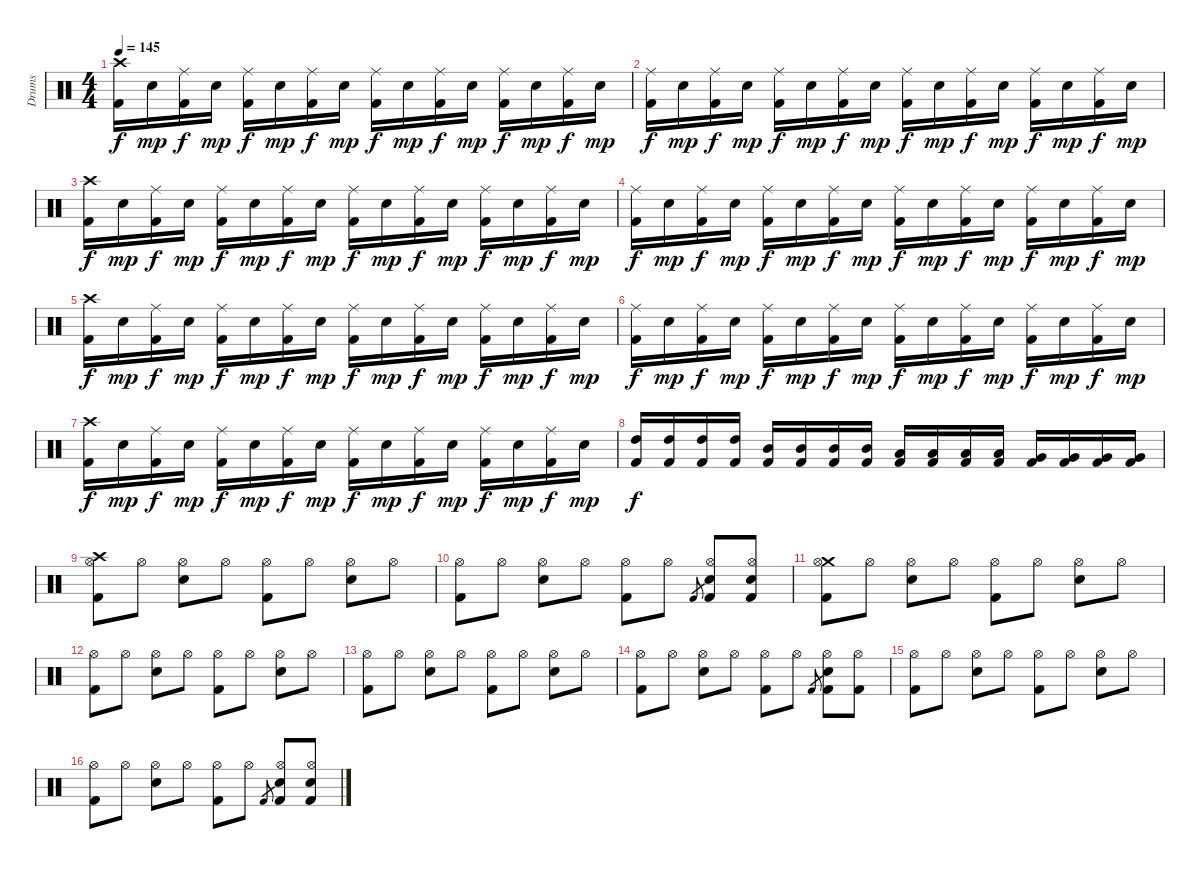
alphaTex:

\track ("Drums" "Drums") {instrument percussion}
\staff {score}
\articulation defaults
\ts (4 4)
\tempo 145
\clef neutral
\ks c
("Crash high (hit)" "Kick (hit) 2").16{dy f} "Electric Snare (hit)".16{dy mp} ("Ride (middle)" "Kick (hit) 2").16{dy f} "Electric Snare (hit)".16{dy mp} ("Ride (middle)" "Kick (hit) 2").16{dy f} "Electric Snare (hit)".16{dy mp} ("Ride (middle)" "Kick (hit) 2").16{dy f} "Electric Snare (hit)".16{dy mp} ("Ride (middle)" "Kick (hit) 2").16{dy f} "Electric Snare (hit)".16{dy mp} ("Ride (middle)" "Kick (hit) 2").16{dy f} "Electric Snare (hit)".16{dy mp} ("Ride (middle)" "Kick (hit) 2").16{dy f} "Electric Snare (hit)".16{dy mp} ("Ride (middle)" "Kick (hit) 2").16{dy f} "Electric Snare (hit)".16{dy mp} |
("Ride (middle)" "Kick (hit) 2").16{dy f} "Electric Snare (hit)".16{dy mp} ("Ride (middle)" "Kick (hit) 2").16{dy f} "Electric Snare (hit)".16{dy mp} ("Ride (middle)" "Kick (hit) 2").16{dy f} "Electric Snare (hit)".16{dy mp} ("Ride (middle)" "Kick (hit) 2").16{dy f} "Electric Snare (hit)".16{dy mp} ("Ride (middle)" "Kick (hit) 2").16{dy f} "Electric Snare (hit)".16{dy mp} ("Ride (middle)" "Kick (hit) 2").16{dy f} "Electric Snare (hit)".16{dy mp} ("Ride (middle)" "Kick (hit) 2").16{dy f} "Electric Snare (hit)".16{dy mp} ("Ride (middle)" "Kick (hit) 2").16{dy f} "Electric Snare (hit)".16{dy mp} |
("Crash high (hit)" "Kick (hit) 2").16{dy f} "Electric Snare (hit)".16{dy mp} ("Ride (middle)" "Kick (hit) 2").16{dy f} "Electric Snare (hit)".16{dy mp} ("Ride (middle)" "Kick (hit) 2").16{dy f} "Electric Snare (hit)".16{dy mp} ("Ride (middle)" "Kick (hit) 2").16{dy f} "Electric Snare (hit)".16{dy mp} ("Ride (middle)" "Kick (hit) 2").16{dy f} "Electric Snare (hit)".16{dy mp} ("Ride (middle)" "Kick (hit) 2").16{dy f} "Electric Snare (hit)".16{dy mp} ("Ride (middle)" "Kick (hit) 2").16{dy f} "Electric Snare (hit)".16{dy mp} ("Ride (middle)" "Kick (hit) 2").16{dy f} "Electric Snare (hit)".16{dy mp} |
("Ride (middle)" "Kick (hit) 2").16{dy f} "Electric Snare (hit)".16{dy mp} ("Ride (middle)" "Kick (hit) 2").16{dy f} "Electric Snare (hit)".16{dy mp} ("Ride (middle)" "Kick (hit) 2").16{dy f} "Electric Snare (hit)".16{dy mp} ("Ride (middle)" "Kick (hit) 2").16{dy f} "Electric Snare (hit)".16{dy mp} ("Ride (middle)" "Kick (hit) 2").16{dy f} "Electric Snare (hit)".16{dy mp} ("Ride (middle)" "Kick (hit) 2").16{dy f} "Electric Snare (hit)".16{dy mp} ("Ride (middle)" "Kick (hit) 2").16{dy f} "Electric Snare (hit)".16{dy mp} ("Ride (middle)" "Kick (hit) 2").16{dy f} "Electric Snare (hit)".16{dy mp} |
("Crash high (hit)" "Kick (hit) 2").16{dy f} "Electric Snare (hit)".16{dy mp} ("Ride (middle)" "Kick (hit) 2").16{dy f} "Electric Snare (hit)".16{dy mp} ("Ride (middle)" "Kick (hit) 2").16{dy f} "Electric Snare (hit)".16{dy mp} ("Ride (middle)" "Kick (hit) 2").16{dy f} "Electric Snare (hit)".16{dy mp} ("Ride (middle)" "Kick (hit) 2").16{dy f} "Electric Snare (hit)".16{dy mp} ("Ride (middle)" "Kick (hit) 2").16{dy f} "Electric Snare (hit)".16{dy mp} ("Ride (middle)" "Kick (hit) 2").16{dy f} "Electric Snare (hit)".16{dy mp} ("Ride (middle)" "Kick (hit) 2").16{dy f} "Electric Snare (hit)".16{dy mp} |
("Ride (middle)" "Kick (hit) 2").16{dy f} "Electric Snare (hit)".16{dy mp} ("Ride (middle)" "Kick (hit) 2").16{dy f} "Electric Snare (hit)".16{dy mp} ("Ride (middle)" "Kick (hit) 2").16{dy f} "Electric Snare (hit)".16{dy mp} ("Ride (middle)" "Kick (hit) 2").16{dy f} "Electric Snare (hit)".16{dy mp} ("Ride (middle)" "Kick (hit) 2").16{dy f} "Electric Snare (hit)".16{dy mp} ("Ride (middle)" "Kick (hit) 2").16{dy f} "Electric Snare (hit)".16{dy mp} ("Ride (middle)" "Kick (hit) 2").16{dy f} "Electric Snare (hit)".16{dy mp} ("Ride (middle)" "Kick (hit) 2").16{dy f} "Electric Snare (hit)".16{dy mp} |
("Crash high (hit)" "Kick (hit) 2").16{dy f} "Electric Snare (hit)".16{dy mp} ("Ride (middle)" "Kick (hit) 2").16{dy f} "Electric Snare (hit)".16{dy mp} ("Ride (middle)" "Kick (hit) 2").16{dy f} "Electric Snare (hit)".16{dy mp} ("Ride (middle)" "Kick (hit) 2").16{dy f} "Electric Snare (hit)".16{dy mp} ("Ride (middle)" "Kick (hit) 2").16{dy f} "Electric Snare (hit)".16{dy mp} ("Ride (middle)" "Kick (hit) 2").16{dy f} "Electric Snare (hit)".16{dy mp} ("Ride (middle)" "Kick (hit) 2").16{dy f} "Electric Snare (hit)".16{dy mp} ("Ride (middle)" "Kick (hit) 2").16{dy f} "Electric Snare (hit)".16{dy mp} |
("High Tom (hit)" "Kick (hit) 2").16{dy f} ("High Tom (hit)" "Kick (hit) 2").16 ("High Tom (hit)" "Kick (hit) 2").16 ("High Tom (hit)" "Kick (hit) 2").16 ("Mid Tom (hit)" "Kick (hit) 2").16 ("Mid Tom (hit)" "Kick (hit) 2").16 ("Mid Tom (hit)" "Kick (hit) 2").16 ("Mid Tom (hit)" "Kick (hit) 2").16 ("Low Tom (hit)" "Kick (hit) 2").16 ("Low Tom (hit)" "Kick (hit) 2").16 ("Low Tom (hit)" "Kick (hit) 2").16 ("Low Tom (hit)" "Kick (hit) 2").16 ("Very Low Tom (hit)" "Kick (hit) 2").16 ("Very Low Tom (hit)" "Kick (hit) 2").16 ("Very Low Tom (hit)" "Kick (hit) 2").16 ("Very Low Tom (hit)" "Kick (hit) 2").16 |
("Crash high (hit)" "Hi-Hat (open)" "Kick (hit) 2").8 "Hi-Hat (open)".8 ("Hi-Hat (open)" "Snare (hit) 2").8 "Hi-Hat (open)".8 ("Hi-Hat (open)" "Kick (hit) 2").8 "Hi-Hat (open)".8 ("Hi-Hat (open)" "Snare (hit) 2").8 "Hi-Hat (open)".8 |
("Hi-Hat (open)" "Kick (hit) 2").8 "Hi-Hat (open)".8 ("Hi-Hat (open)" "Snare (hit) 2").8 "Hi-Hat (open)".8 ("Hi-Hat (open)" "Kick (hit) 2").8 "Hi-Hat (open)".8 "Kick (hit) 2".8{gr} ("Hi-Hat (open)" "Snare (hit) 2" "Kick (hit) 2").8 ("Hi-Hat (open)" "Snare (hit) 2" "Kick (hit) 2").8 |
("Crash medium (hit)" "Hi-Hat (open)" "Kick (hit) 2").8 "Hi-Hat (open)".8 ("Hi-Hat (open)" "Snare (hit) 2").8 "Hi-Hat (open)".8 ("Hi-Hat (open)" "Kick (hit) 2").8 "Hi-Hat (open)".8 ("Hi-Hat (open)" "Snare (hit) 2").8 "Hi-Hat (open)".8 |
("Hi-Hat (open)" "Kick (hit) 2").8 "Hi-Hat (open)".8 ("Hi-Hat (open)" "Snare (hit) 2").8 "Hi-Hat (open)".8 ("Hi-Hat (open)" "Kick (hit) 2").8 "Hi-Hat (open)".8 ("Hi-Hat (open)" "Snare (hit) 2").8 "Hi-Hat (open)".8 |
("Hi-Hat (open)" "Kick (hit) 2").8 "Hi-Hat (open)".8 ("Hi-Hat (open)" "Snare (hit) 2").8 "Hi-Hat (open)".8 ("Hi-Hat (open)" "Kick (hit) 2").8 "Hi-Hat (open)".8 ("Hi-Hat (open)" "Snare (hit) 2").8 "Hi-Hat (open)".8 |
("Hi-Hat (open)" "Kick (hit) 2").8 "Hi-Hat (open)".8 ("Hi-Hat (open)" "Snare (hit) 2").8 "Hi-Hat (open)".8 ("Hi-Hat (open)" "Kick (hit) 2").8 "Hi-Hat (open)".8 "Kick (hit) 2".8{gr} ("Hi-Hat (open)" "Snare (hit) 2" "Kick (hit) 2").8 ("Hi-Hat (open)" "Kick (hit) 2").8 |
("Hi-Hat (open)" "Kick (hit) 2").8 "Hi-Hat (open)".8 ("Hi-Hat (open)" "Snare (hit) 2").8 "Hi-Hat (open)".8 ("Hi-Hat (open)" "Kick (hit) 2").8 "Hi-Hat (open)".8 ("Hi-Hat (open)" "Snare (hit) 2").8 "Hi-Hat (open)".8 |
("Hi-Hat (open)" "Kick (hit) 2").8 "Hi-Hat (open)".8 ("Hi-Hat (open)" "Snare (hit) 2").8 "Hi-Hat (open)".8 ("Hi-Hat (open)" "Kick (hit) 2").8 "Hi-Hat (open)".8 "Kick (hit) 2".8{gr} ("Hi-Hat (open)" "Snare (hit) 2" "Kick (hit) 2").8 ("Hi-Hat (open)" "Snare (hit) 2" "Kick (hit) 2").8
